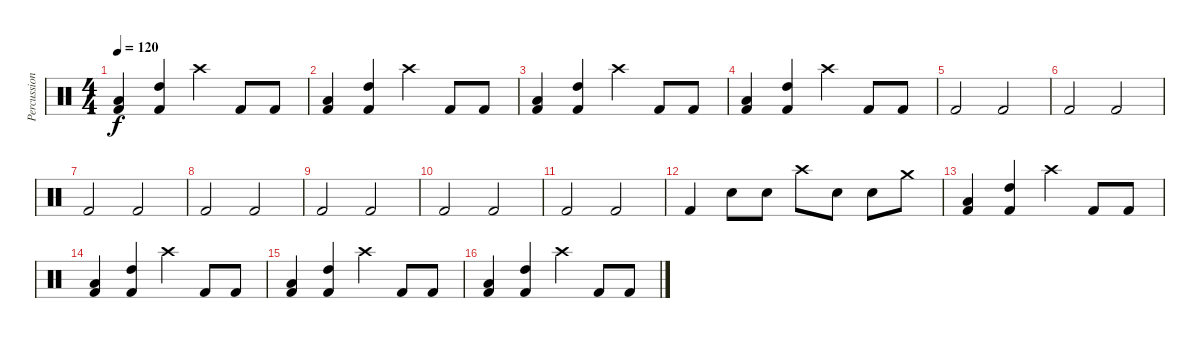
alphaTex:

\track ("Percussion" "Percussion") {instrument percussion}
\staff {score}
\articulation defaults
\ts (4 4)
\tempo 120
\clef neutral
\ks c
("Low Floor Tom (hit)" "Kick (hit) 2").4{dy f} ("High Tom (hit)" "Kick (hit) 2").4 "Crash high (hit)".4 "Kick (hit) 2".8 "Kick (hit) 2".8 |
("Low Floor Tom (hit)" "Kick (hit) 2").4 ("High Tom (hit)" "Kick (hit) 2").4 "Crash high (hit)".4 "Kick (hit) 2".8 "Kick (hit) 2".8 |
("Low Floor Tom (hit)" "Kick (hit) 2").4 ("High Tom (hit)" "Kick (hit) 2").4 "Crash high (hit)".4 "Kick (hit) 2".8 "Kick (hit) 2".8 |
("Low Floor Tom (hit)" "Kick (hit) 2").4 ("High Tom (hit)" "Kick (hit) 2").4 "Crash high (hit)".4 "Kick (hit) 2".8 "Kick (hit) 2".8 |
"Kick (hit) 2".2 "Kick (hit) 2".2 |
"Kick (hit) 2".2 "Kick (hit) 2".2 |
"Kick (hit) 2".2 "Kick (hit) 2".2 |
"Kick (hit) 2".2 "Kick (hit) 2".2 |
"Kick (hit) 2".2 "Kick (hit) 2".2 |
"Kick (hit) 2".2 "Kick (hit) 2".2 |
"Kick (hit) 2".2 "Kick (hit) 2".2 |
"Kick (hit) 2".4 "Electric Snare (hit)".8 "Electric Snare (hit)".8 "Crash high (hit)".8 "Electric Snare (hit)".8 "Electric Snare (hit)".8 "Crash medium (hit)".8 |
("Low Floor Tom (hit)" "Kick (hit) 2").4 ("High Tom (hit)" "Kick (hit) 2").4 "Crash high (hit)".4 "Kick (hit) 2".8 "Kick (hit) 2".8 |
("Low Floor Tom (hit)" "Kick (hit) 2").4 ("High Tom (hit)" "Kick (hit) 2").4 "Crash high (hit)".4 "Kick (hit) 2".8 "Kick (hit) 2".8 |
("Low Floor Tom (hit)" "Kick (hit) 2").4 ("High Tom (hit)" "Kick (hit) 2").4 "Crash high (hit)".4 "Kick (hit) 2".8 "Kick (hit) 2".8 |
("Low Floor Tom (hit)" "Kick (hit) 2").4 ("High Tom (hit)" "Kick (hit) 2").4 "Crash high (hit)".4 "Kick (hit) 2".8 "Kick (hit) 2".8
